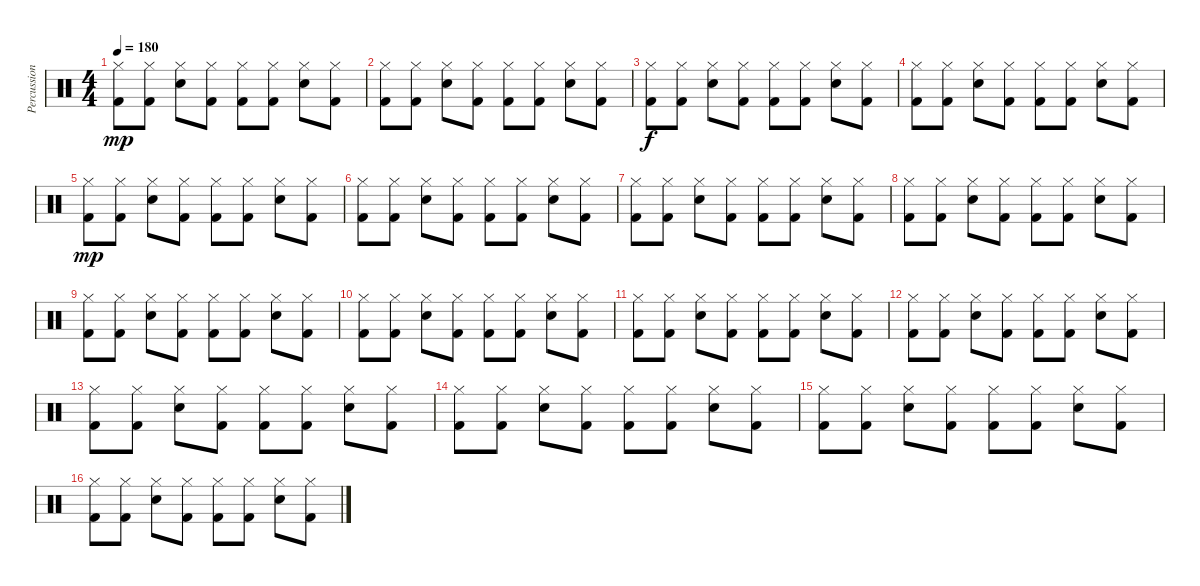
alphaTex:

\track ("Percussion" "Percussion") {instrument percussion}
\staff {score}
\articulation defaults
\ts (4 4)
\tempo 180
\clef neutral
\ks c
("Hi-Hat (closed)" "Kick (hit) 2").8{dy mp} ("Hi-Hat (closed)" "Kick (hit) 2").8 ("Hi-Hat (closed)" "Snare (hit) 2").8 ("Hi-Hat (closed)" "Kick (hit) 2").8 ("Hi-Hat (closed)" "Kick (hit) 2").8 ("Hi-Hat (closed)" "Kick (hit) 2").8 ("Hi-Hat (closed)" "Snare (hit) 2").8 ("Hi-Hat (closed)" "Kick (hit) 2").8 |
("Hi-Hat (closed)" "Kick (hit) 2").8 ("Hi-Hat (closed)" "Kick (hit) 2").8 ("Hi-Hat (closed)" "Snare (hit) 2").8 ("Hi-Hat (closed)" "Kick (hit) 2").8 ("Hi-Hat (closed)" "Kick (hit) 2").8 ("Hi-Hat (closed)" "Kick (hit) 2").8 ("Hi-Hat (closed)" "Snare (hit) 2").8 ("Hi-Hat (closed)" "Kick (hit) 2").8 |
("Hi-Hat (closed)" "Kick (hit) 2").8{dy f} ("Hi-Hat (closed)" "Kick (hit) 2").8 ("Hi-Hat (closed)" "Snare (hit) 2").8 ("Hi-Hat (closed)" "Kick (hit) 2").8 ("Hi-Hat (closed)" "Kick (hit) 2").8 ("Hi-Hat (closed)" "Kick (hit) 2").8 ("Hi-Hat (closed)" "Snare (hit) 2").8 ("Hi-Hat (closed)" "Kick (hit) 2").8 |
("Hi-Hat (closed)" "Kick (hit) 2").8 ("Hi-Hat (closed)" "Kick (hit) 2").8 ("Hi-Hat (closed)" "Snare (hit) 2").8 ("Hi-Hat (closed)" "Kick (hit) 2").8 ("Hi-Hat (closed)" "Kick (hit) 2").8 ("Hi-Hat (closed)" "Kick (hit) 2").8 ("Hi-Hat (closed)" "Snare (hit) 2").8 ("Hi-Hat (closed)" "Kick (hit) 2").8 |
("Hi-Hat (closed)" "Kick (hit) 2").8{dy mp} ("Hi-Hat (closed)" "Kick (hit) 2").8 ("Hi-Hat (closed)" "Snare (hit) 2").8 ("Hi-Hat (closed)" "Kick (hit) 2").8 ("Hi-Hat (closed)" "Kick (hit) 2").8 ("Hi-Hat (closed)" "Kick (hit) 2").8 ("Hi-Hat (closed)" "Snare (hit) 2").8 ("Hi-Hat (closed)" "Kick (hit) 2").8 |
("Hi-Hat (closed)" "Kick (hit) 2").8 ("Hi-Hat (closed)" "Kick (hit) 2").8 ("Hi-Hat (closed)" "Snare (hit) 2").8 ("Hi-Hat (closed)" "Kick (hit) 2").8 ("Hi-Hat (closed)" "Kick (hit) 2").8 ("Hi-Hat (closed)" "Kick (hit) 2").8 ("Hi-Hat (closed)" "Snare (hit) 2").8 ("Hi-Hat (closed)" "Kick (hit) 2").8 |
("Hi-Hat (closed)" "Kick (hit) 2").8 ("Hi-Hat (closed)" "Kick (hit) 2").8 ("Hi-Hat (closed)" "Snare (hit) 2").8 ("Hi-Hat (closed)" "Kick (hit) 2").8 ("Hi-Hat (closed)" "Kick (hit) 2").8 ("Hi-Hat (closed)" "Kick (hit) 2").8 ("Hi-Hat (closed)" "Snare (hit) 2").8 ("Hi-Hat (closed)" "Kick (hit) 2").8 |
("Hi-Hat (closed)" "Kick (hit) 2").8 ("Hi-Hat (closed)" "Kick (hit) 2").8 ("Hi-Hat (closed)" "Snare (hit) 2").8 ("Hi-Hat (closed)" "Kick (hit) 2").8 ("Hi-Hat (closed)" "Kick (hit) 2").8 ("Hi-Hat (closed)" "Kick (hit) 2").8 ("Hi-Hat (closed)" "Snare (hit) 2").8 ("Hi-Hat (closed)" "Kick (hit) 2").8 |
("Hi-Hat (closed)" "Kick (hit) 2").8 ("Hi-Hat (closed)" "Kick (hit) 2").8 ("Hi-Hat (closed)" "Snare (hit) 2").8 ("Hi-Hat (closed)" "Kick (hit) 2").8 ("Hi-Hat (closed)" "Kick (hit) 2").8 ("Hi-Hat (closed)" "Kick (hit) 2").8 ("Hi-Hat (closed)" "Snare (hit) 2").8 ("Hi-Hat (closed)" "Kick (hit) 2").8 |
("Hi-Hat (closed)" "Kick (hit) 2").8 ("Hi-Hat (closed)" "Kick (hit) 2").8 ("Hi-Hat (closed)" "Snare (hit) 2").8 ("Hi-Hat (closed)" "Kick (hit) 2").8 ("Hi-Hat (closed)" "Kick (hit) 2").8 ("Hi-Hat (closed)" "Kick (hit) 2").8 ("Hi-Hat (closed)" "Snare (hit) 2").8 ("Hi-Hat (closed)" "Kick (hit) 2").8 |
("Hi-Hat (closed)" "Kick (hit) 2").8 ("Hi-Hat (closed)" "Kick (hit) 2").8 ("Hi-Hat (closed)" "Snare (hit) 2").8 ("Hi-Hat (closed)" "Kick (hit) 2").8 ("Hi-Hat (closed)" "Kick (hit) 2").8 ("Hi-Hat (closed)" "Kick (hit) 2").8 ("Hi-Hat (closed)" "Snare (hit) 2").8 ("Hi-Hat (closed)" "Kick (hit) 2").8 |
("Hi-Hat (closed)" "Kick (hit) 2").8 ("Hi-Hat (closed)" "Kick (hit) 2").8 ("Hi-Hat (closed)" "Snare (hit) 2").8 ("Hi-Hat (closed)" "Kick (hit) 2").8 ("Hi-Hat (closed)" "Kick (hit) 2").8 ("Hi-Hat (closed)" "Kick (hit) 2").8 ("Hi-Hat (closed)" "Snare (hit) 2").8 ("Hi-Hat (closed)" "Kick (hit) 2").8 |
("Hi-Hat (closed)" "Kick (hit) 2").8 ("Hi-Hat (closed)" "Kick (hit) 2").8 ("Hi-Hat (closed)" "Snare (hit) 2").8 ("Hi-Hat (closed)" "Kick (hit) 2").8 ("Hi-Hat (closed)" "Kick (hit) 2").8 ("Hi-Hat (closed)" "Kick (hit) 2").8 ("Hi-Hat (closed)" "Snare (hit) 2").8 ("Hi-Hat (closed)" "Kick (hit) 2").8 |
("Hi-Hat (closed)" "Kick (hit) 2").8 ("Hi-Hat (closed)" "Kick (hit) 2").8 ("Hi-Hat (closed)" "Snare (hit) 2").8 ("Hi-Hat (closed)" "Kick (hit) 2").8 ("Hi-Hat (closed)" "Kick (hit) 2").8 ("Hi-Hat (closed)" "Kick (hit) 2").8 ("Hi-Hat (closed)" "Snare (hit) 2").8 ("Hi-Hat (closed)" "Kick (hit) 2").8 |
("Hi-Hat (closed)" "Kick (hit) 2").8 ("Hi-Hat (closed)" "Kick (hit) 2").8 ("Hi-Hat (closed)" "Snare (hit) 2").8 ("Hi-Hat (closed)" "Kick (hit) 2").8 ("Hi-Hat (closed)" "Kick (hit) 2").8 ("Hi-Hat (closed)" "Kick (hit) 2").8 ("Hi-Hat (closed)" "Snare (hit) 2").8 ("Hi-Hat (closed)" "Kick (hit) 2").8 |
("Hi-Hat (closed)" "Kick (hit) 2").8 ("Hi-Hat (closed)" "Kick (hit) 2").8 ("Hi-Hat (closed)" "Snare (hit) 2").8 ("Hi-Hat (closed)" "Kick (hit) 2").8 ("Hi-Hat (closed)" "Kick (hit) 2").8 ("Hi-Hat (closed)" "Kick (hit) 2").8 ("Hi-Hat (closed)" "Snare (hit) 2").8 ("Hi-Hat (closed)" "Kick (hit) 2").8
